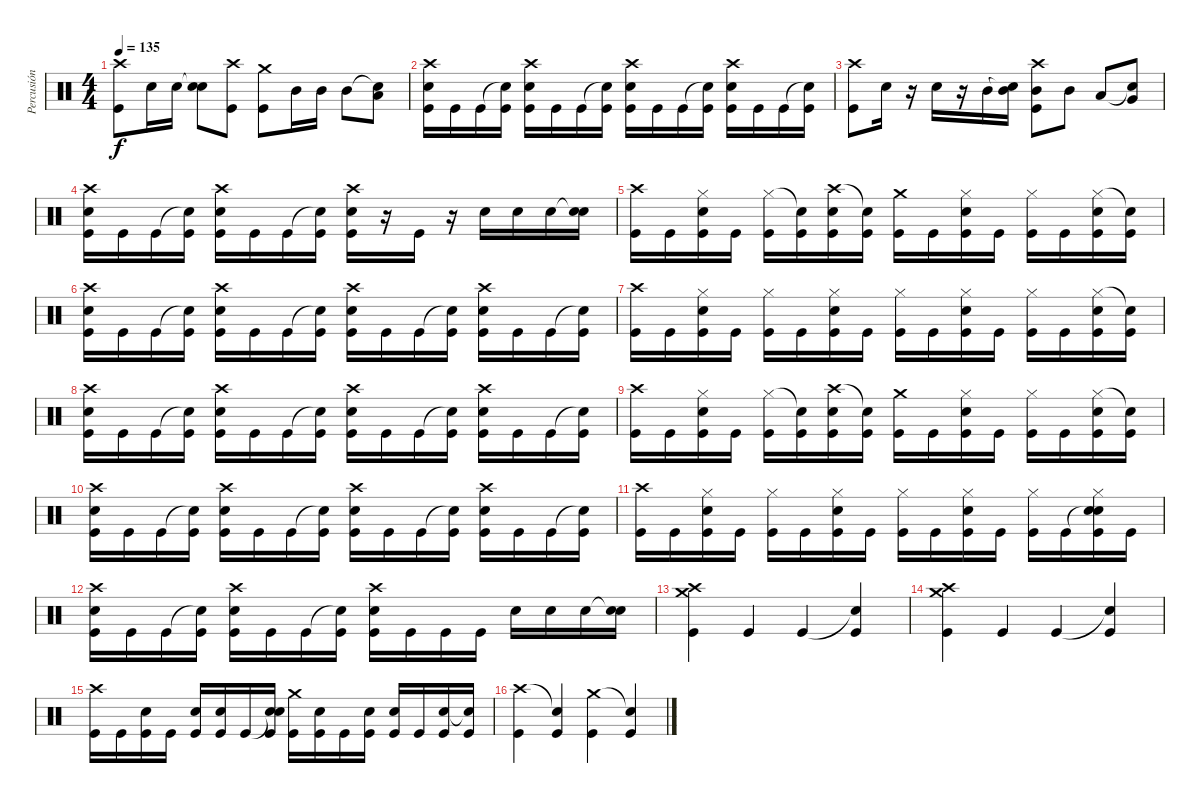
\track ("Percusión" "Percusión") {instrument percussion}
\staff {score}
\articulation defaults
\ts (4 4)
\tempo 135
\clef neutral
\ks c
("Crash high (hit)" "Kick (hit)").8{dy f} "Snare (hit) 2".16 "Snare (hit) 2".16 ("Snare (hit)"{t} "Snare (hit) 2").8 ("Crash high (hit)" "Kick (hit)").8 ("Crash medium (hit)" "Kick (hit)").8 "Mid Tom (hit)".16 "Mid Tom (hit)".16 "Mid Tom (hit)".8 ("Snare (hit)"{t} "Low Tom (hit)").8 |
("Crash high (hit)" "Snare (hit) 2" "Kick (hit)").16 "Kick (hit)".16 "Kick (hit)".16 ("Snare (hit)"{t} "Kick (hit)").16 ("Crash high (hit)" "Snare (hit) 2" "Kick (hit)").16 "Kick (hit)".16 "Kick (hit)".16 ("Snare (hit)"{t} "Kick (hit)").16 ("Crash high (hit)" "Snare (hit) 2" "Kick (hit)").16 "Kick (hit)".16 "Kick (hit)".16 ("Snare (hit)"{t} "Kick (hit)").16 ("Crash high (hit)" "Snare (hit) 2" "Kick (hit)").16 "Kick (hit)".16 "Kick (hit)".16 ("Snare (hit)"{t} "Kick (hit)").16 |
("Crash high (hit)" "Kick (hit)").8 "Snare (hit) 2".16 r.16 "Snare (hit) 2".16 r.16 "Mid Tom (hit)".16 ("Snare (hit)"{t} "Mid Tom (hit)").16 ("Crash high (hit)" "Mid Tom (hit)" "Kick (hit)").8 "Mid Tom (hit)".8 "Low Tom (hit)".8 ("Snare (hit)"{t} "Very Low Tom (hit)").8 |
("Crash high (hit)" "Snare (hit) 2" "Kick (hit)").16 "Kick (hit)".16 "Kick (hit)".16 ("Snare (hit)"{t} "Kick (hit)").16 ("Crash high (hit)" "Snare (hit) 2" "Kick (hit)").16 "Kick (hit)".16 "Kick (hit)".16 ("Snare (hit)"{t} "Kick (hit)").16 ("Crash high (hit)" "Snare (hit) 2" "Kick (hit)").16 r.16 "Kick (hit)".16 r.16 "Snare (hit) 2".16 "Snare (hit) 2".16 "Snare (hit) 2".16 ("Snare (hit)"{t} "Snare (hit) 2").16 |
("Crash high (hit)" "Kick (hit)").16 "Kick (hit)".16 ("Hi-Hat (closed)" "Snare (hit) 2" "Kick (hit)").16 "Kick (hit)".16 ("Hi-Hat (closed)" "Kick (hit)").16 ("Snare (hit)"{t} "Kick (hit)").16 ("Crash high (hit)" "Snare (hit) 2" "Kick (hit)").16 ("Snare (hit)"{t} "Kick (hit)").16 ("Crash medium (hit)" "Kick (hit)").16 "Kick (hit)".16 ("Hi-Hat (closed)" "Snare (hit) 2" "Kick (hit)").16 "Kick (hit)".16 ("Hi-Hat (closed)" "Kick (hit)").16 "Kick (hit)".16 ("Hi-Hat (closed)" "Snare (hit) 2" "Kick (hit)").16 ("Snare (hit)"{t} "Kick (hit)").16 |
("Crash high (hit)" "Snare (hit) 2" "Kick (hit)").16 "Kick (hit)".16 "Kick (hit)".16 ("Snare (hit)"{t} "Kick (hit)").16 ("Crash high (hit)" "Snare (hit) 2" "Kick (hit)").16 "Kick (hit)".16 "Kick (hit)".16 ("Snare (hit)"{t} "Kick (hit)").16 ("Crash high (hit)" "Snare (hit) 2" "Kick (hit)").16 "Kick (hit)".16 "Kick (hit)".16 ("Snare (hit)"{t} "Kick (hit)").16 ("Crash high (hit)" "Snare (hit) 2" "Kick (hit)").16 "Kick (hit)".16 "Kick (hit)".16 ("Snare (hit)"{t} "Kick (hit)").16 |
("Crash high (hit)" "Kick (hit)").16 "Kick (hit)".16 ("Hi-Hat (closed)" "Snare (hit) 2" "Kick (hit)").16 "Kick (hit)".16 ("Hi-Hat (closed)" "Kick (hit)").16 "Kick (hit)".16 ("Hi-Hat (closed)" "Snare (hit) 2" "Kick (hit)").16 "Kick (hit)".16 ("Hi-Hat (closed)" "Kick (hit)").16 "Kick (hit)".16 ("Hi-Hat (closed)" "Snare (hit) 2" "Kick (hit)").16 "Kick (hit)".16 ("Hi-Hat (closed)" "Kick (hit)").16 "Kick (hit)".16 ("Hi-Hat (closed)" "Snare (hit) 2" "Kick (hit)").16 ("Snare (hit)"{t} "Kick (hit)").16 |
("Crash high (hit)" "Snare (hit) 2" "Kick (hit)").16 "Kick (hit)".16 "Kick (hit)".16 ("Snare (hit)"{t} "Kick (hit)").16 ("Crash high (hit)" "Snare (hit) 2" "Kick (hit)").16 "Kick (hit)".16 "Kick (hit)".16 ("Snare (hit)"{t} "Kick (hit)").16 ("Crash high (hit)" "Snare (hit) 2" "Kick (hit)").16 "Kick (hit)".16 "Kick (hit)".16 ("Snare (hit)"{t} "Kick (hit)").16 ("Crash high (hit)" "Snare (hit) 2" "Kick (hit)").16 "Kick (hit)".16 "Kick (hit)".16 ("Snare (hit)"{t} "Kick (hit)").16 |
("Crash high (hit)" "Kick (hit)").16 "Kick (hit)".16 ("Hi-Hat (closed)" "Snare (hit) 2" "Kick (hit)").16 "Kick (hit)".16 ("Hi-Hat (closed)" "Kick (hit)").16 ("Snare (hit)"{t} "Kick (hit)").16 ("Crash high (hit)" "Snare (hit) 2" "Kick (hit)").16 ("Snare (hit)"{t} "Kick (hit)").16 ("Crash medium (hit)" "Kick (hit)").16 "Kick (hit)".16 ("Hi-Hat (closed)" "Snare (hit) 2" "Kick (hit)").16 "Kick (hit)".16 ("Hi-Hat (closed)" "Kick (hit)").16 "Kick (hit)".16 ("Hi-Hat (closed)" "Snare (hit) 2" "Kick (hit)").16 ("Snare (hit)"{t} "Kick (hit)").16 |
("Crash high (hit)" "Snare (hit) 2" "Kick (hit)").16 "Kick (hit)".16 "Kick (hit)".16 ("Snare (hit)"{t} "Kick (hit)").16 ("Crash high (hit)" "Snare (hit) 2" "Kick (hit)").16 "Kick (hit)".16 "Kick (hit)".16 ("Snare (hit)"{t} "Kick (hit)").16 ("Crash high (hit)" "Snare (hit) 2" "Kick (hit)").16 "Kick (hit)".16 "Kick (hit)".16 ("Snare (hit)"{t} "Kick (hit)").16 ("Crash high (hit)" "Snare (hit) 2" "Kick (hit)").16 "Kick (hit)".16 "Kick (hit)".16 ("Snare (hit)"{t} "Kick (hit)").16 |
("Crash high (hit)" "Kick (hit)").16 "Kick (hit)".16 ("Hi-Hat (closed)" "Snare (hit) 2" "Kick (hit)").16 "Kick (hit)".16 ("Hi-Hat (closed)" "Kick (hit)").16 "Kick (hit)".16 ("Hi-Hat (closed)" "Snare (hit) 2" "Kick (hit)").16 "Kick (hit)".16 ("Hi-Hat (closed)" "Kick (hit)").16 "Kick (hit)".16 ("Hi-Hat (closed)" "Snare (hit) 2" "Kick (hit)").16 "Kick (hit)".16 ("Hi-Hat (closed)" "Kick (hit)").16 "Kick (hit)".16 ("Snare (hit)"{t} "Hi-Hat (closed)" "Snare (hit) 2" "Kick (hit)").16 "Kick (hit)".16 |
("Crash high (hit)" "Snare (hit) 2" "Kick (hit)").16 "Kick (hit)".16 "Kick (hit)".16 ("Snare (hit)"{t} "Kick (hit)").16 ("Crash high (hit)" "Snare (hit) 2" "Kick (hit)").16 "Kick (hit)".16 "Kick (hit)".16 ("Snare (hit)"{t} "Kick (hit)").16 ("Crash high (hit)" "Snare (hit) 2" "Kick (hit)").16 "Kick (hit)".16 "Kick (hit)".16 "Kick (hit)".16 "Snare (hit) 2".16 "Snare (hit) 2".16 "Snare (hit) 2".16 ("Snare (hit)"{t} "Snare (hit) 2").16 |
("Crash high (hit)" "Crash medium (hit)" "Kick (hit)").4 "Kick (hit)".4 "Kick (hit)".4 ("Snare (hit)"{t} "Kick (hit)").4 |
("Crash high (hit)" "Crash medium (hit)" "Kick (hit)").4 "Kick (hit)".4 "Kick (hit)".4 ("Snare (hit)"{t} "Kick (hit)").4 |
("Crash high (hit)" "Kick (hit)").16 "Kick (hit)".16 ("Snare (hit) 2" "Kick (hit)").16 "Kick (hit)".16 ("Snare (hit) 2" "Kick (hit)").16 ("Snare (hit) 2" "Kick (hit)").16 "Kick (hit)".16 ("Snare (hit)"{t} "Snare (hit) 2" "Kick (hit)").16 ("Crash medium (hit)" "Kick (hit)").16 ("Snare (hit) 2" "Kick (hit)").16 "Kick (hit)".16 ("Snare (hit) 2" "Kick (hit)").16 ("Snare (hit) 2" "Kick (hit)").16 "Kick (hit)".16 ("Snare (hit) 2" "Kick (hit)").16 ("Snare (hit)"{t} "Kick (hit)").16 |
("Crash high (hit)" "Kick (hit)").4 ("Snare (hit)"{t} "Kick (hit)").4 ("Crash medium (hit)" "Kick (hit)").4 ("Snare (hit)"{t} "Kick (hit)").4
